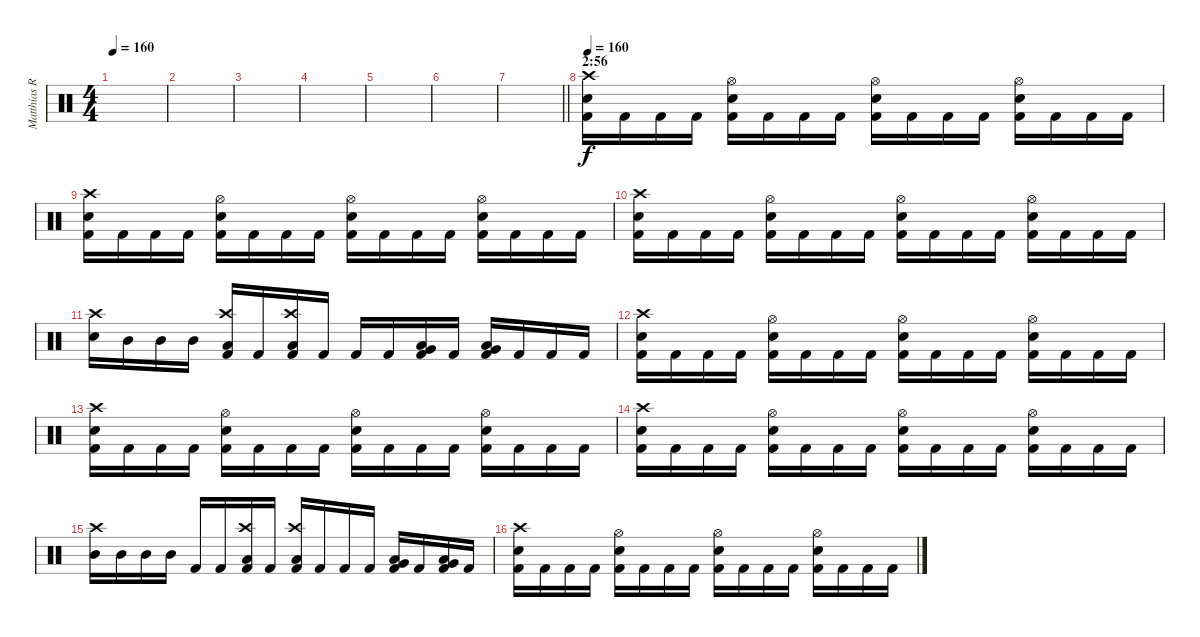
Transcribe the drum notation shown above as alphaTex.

\track ("Matthias R." "Matthias R") {instrument percussion}
\staff {score}
\articulation defaults
\ts (4 4)
\tempo 160
\clef neutral
\ks c
|
|
|
|
|
|
\barLineRight lightlight
|
\section ("" "2:56")
\tempo 160
("Kick (hit) 2" "Snare (hit) 2" "Crash high (hit)").16{dy f} "Kick (hit) 2".16 "Kick (hit) 2".16 "Kick (hit) 2".16 ("Kick (hit) 2" "Snare (hit) 2" "Hi-Hat (open)").16 "Kick (hit) 2".16 "Kick (hit) 2".16 "Kick (hit) 2".16 ("Kick (hit) 2" "Snare (hit) 2" "Hi-Hat (open)").16 "Kick (hit) 2".16 "Kick (hit) 2".16 "Kick (hit) 2".16 ("Kick (hit) 2" "Snare (hit) 2" "Hi-Hat (open)").16 "Kick (hit) 2".16 "Kick (hit) 2".16 "Kick (hit) 2".16 |
("Kick (hit) 2" "Snare (hit) 2" "Crash high (hit)").16 "Kick (hit) 2".16 "Kick (hit) 2".16 "Kick (hit) 2".16 ("Kick (hit) 2" "Snare (hit) 2" "Hi-Hat (open)").16 "Kick (hit) 2".16 "Kick (hit) 2".16 "Kick (hit) 2".16 ("Kick (hit) 2" "Snare (hit) 2" "Hi-Hat (open)").16 "Kick (hit) 2".16 "Kick (hit) 2".16 "Kick (hit) 2".16 ("Kick (hit) 2" "Snare (hit) 2" "Hi-Hat (open)").16 "Kick (hit) 2".16 "Kick (hit) 2".16 "Kick (hit) 2".16 |
("Kick (hit) 2" "Snare (hit) 2" "Crash high (hit)").16 "Kick (hit) 2".16 "Kick (hit) 2".16 "Kick (hit) 2".16 ("Kick (hit) 2" "Snare (hit) 2" "Hi-Hat (open)").16 "Kick (hit) 2".16 "Kick (hit) 2".16 "Kick (hit) 2".16 ("Kick (hit) 2" "Snare (hit) 2" "Hi-Hat (open)").16 "Kick (hit) 2".16 "Kick (hit) 2".16 "Kick (hit) 2".16 ("Kick (hit) 2" "Snare (hit) 2" "Hi-Hat (open)").16 "Kick (hit) 2".16 "Kick (hit) 2".16 "Kick (hit) 2".16 |
("Snare (hit) 2" "Crash high (hit)").16 "Mid Tom (hit)".16 "Mid Tom (hit)".16 "Mid Tom (hit)".16 ("Kick (hit) 2" "Low Tom (hit)" "Crash high (hit)").16 "Kick (hit) 2".16 ("Kick (hit) 2" "Low Tom (hit)" "Crash high (hit)").16 "Kick (hit) 2".16 "Kick (hit) 2".16 "Kick (hit) 2".16 ("Kick (hit) 2" "Very Low Tom (hit)" "Low Floor Tom (hit)").16 "Kick (hit) 2".16 ("Kick (hit) 2" "Very Low Tom (hit)" "Low Floor Tom (hit)").16 "Kick (hit) 2".16 "Kick (hit) 2".16 "Kick (hit) 2".16 |
("Kick (hit) 2" "Snare (hit) 2" "Crash high (hit)").16 "Kick (hit) 2".16 "Kick (hit) 2".16 "Kick (hit) 2".16 ("Kick (hit) 2" "Snare (hit) 2" "Hi-Hat (open)").16 "Kick (hit) 2".16 "Kick (hit) 2".16 "Kick (hit) 2".16 ("Kick (hit) 2" "Snare (hit) 2" "Hi-Hat (open)").16 "Kick (hit) 2".16 "Kick (hit) 2".16 "Kick (hit) 2".16 ("Kick (hit) 2" "Snare (hit) 2" "Hi-Hat (open)").16 "Kick (hit) 2".16 "Kick (hit) 2".16 "Kick (hit) 2".16 |
("Kick (hit) 2" "Snare (hit) 2" "Crash high (hit)").16 "Kick (hit) 2".16 "Kick (hit) 2".16 "Kick (hit) 2".16 ("Kick (hit) 2" "Snare (hit) 2" "Hi-Hat (open)").16 "Kick (hit) 2".16 "Kick (hit) 2".16 "Kick (hit) 2".16 ("Kick (hit) 2" "Snare (hit) 2" "Hi-Hat (open)").16 "Kick (hit) 2".16 "Kick (hit) 2".16 "Kick (hit) 2".16 ("Kick (hit) 2" "Snare (hit) 2" "Hi-Hat (open)").16 "Kick (hit) 2".16 "Kick (hit) 2".16 "Kick (hit) 2".16 |
("Kick (hit) 2" "Snare (hit) 2" "Crash high (hit)").16 "Kick (hit) 2".16 "Kick (hit) 2".16 "Kick (hit) 2".16 ("Kick (hit) 2" "Snare (hit) 2" "Hi-Hat (open)").16 "Kick (hit) 2".16 "Kick (hit) 2".16 "Kick (hit) 2".16 ("Kick (hit) 2" "Snare (hit) 2" "Hi-Hat (open)").16 "Kick (hit) 2".16 "Kick (hit) 2".16 "Kick (hit) 2".16 ("Kick (hit) 2" "Snare (hit) 2" "Hi-Hat (open)").16 "Kick (hit) 2".16 "Kick (hit) 2".16 "Kick (hit) 2".16 |
("Mid Tom (hit)" "Crash high (hit)").16 "Mid Tom (hit)".16 "Mid Tom (hit)".16 "Mid Tom (hit)".16 "Kick (hit) 2".16 "Kick (hit) 2".16 ("Kick (hit) 2" "Low Tom (hit)" "Crash high (hit)").16 "Kick (hit) 2".16 ("Kick (hit) 2" "Low Tom (hit)" "Crash high (hit)").16 "Kick (hit) 2".16 "Kick (hit) 2".16 "Kick (hit) 2".16 ("Kick (hit) 2" "Very Low Tom (hit)" "Low Floor Tom (hit)").16 "Kick (hit) 2".16 ("Kick (hit) 2" "Very Low Tom (hit)" "Low Floor Tom (hit)").16 "Kick (hit) 2".16 |
("Kick (hit) 2" "Snare (hit) 2" "Crash high (hit)").16 "Kick (hit) 2".16 "Kick (hit) 2".16 "Kick (hit) 2".16 ("Kick (hit) 2" "Snare (hit) 2" "Hi-Hat (open)").16 "Kick (hit) 2".16 "Kick (hit) 2".16 "Kick (hit) 2".16 ("Kick (hit) 2" "Snare (hit) 2" "Hi-Hat (open)").16 "Kick (hit) 2".16 "Kick (hit) 2".16 "Kick (hit) 2".16 ("Kick (hit) 2" "Snare (hit) 2" "Hi-Hat (open)").16 "Kick (hit) 2".16 "Kick (hit) 2".16 "Kick (hit) 2".16
